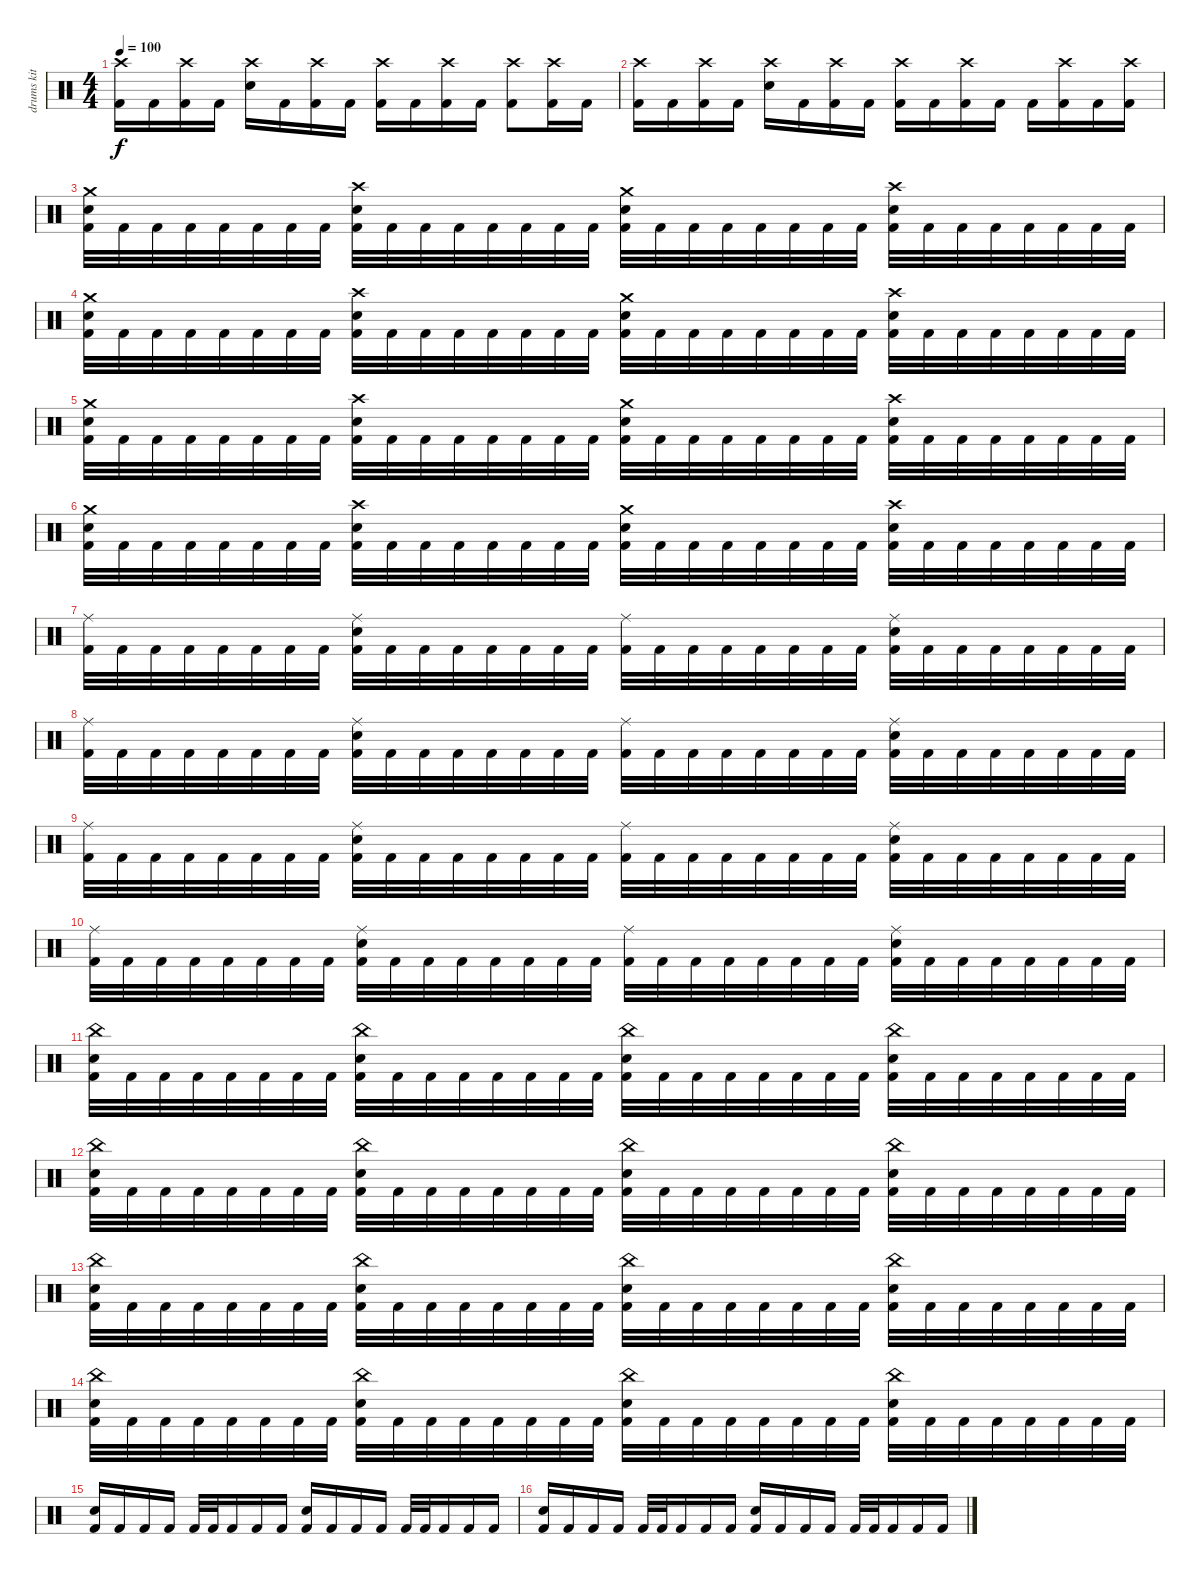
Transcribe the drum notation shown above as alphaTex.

\track ("drums kit" "drums kit") {instrument percussion}
\staff {score}
\articulation defaults
\ts (4 4)
\tempo 100
\clef neutral
\ks c
("Crash high (hit)" "Kick (hit) 2").16{dy f} "Kick (hit) 2".16 ("Crash high (hit)" "Kick (hit) 2").16 "Kick (hit) 2".16 ("Crash high (hit)" "Snare (hit) 2").16 "Kick (hit) 2".16 ("Crash high (hit)" "Kick (hit) 2").16 "Kick (hit) 2".16 ("Crash high (hit)" "Kick (hit) 2").16 "Kick (hit) 2".16 ("Crash high (hit)" "Kick (hit) 2").16 "Kick (hit) 2".16 ("Crash high (hit)" "Kick (hit) 2").8 ("Crash high (hit)" "Kick (hit) 2").16 "Kick (hit) 2".16 |
("Crash high (hit)" "Kick (hit) 2").16 "Kick (hit) 2".16 ("Crash high (hit)" "Kick (hit) 2").16 "Kick (hit) 2".16 ("Crash high (hit)" "Snare (hit) 2").16 "Kick (hit) 2".16 ("Crash high (hit)" "Kick (hit) 2").16 "Kick (hit) 2".16 ("Crash high (hit)" "Kick (hit) 2").16 "Kick (hit) 2".16 ("Crash high (hit)" "Kick (hit) 2").16 "Kick (hit) 2".16 "Kick (hit) 2".16 ("Crash high (hit)" "Kick (hit) 2").16 "Kick (hit) 2".16 ("Crash high (hit)" "Kick (hit) 2").16 |
("Crash medium (hit)" "Snare (hit) 2" "Kick (hit) 2").32 "Kick (hit) 2".32 "Kick (hit) 2".32 "Kick (hit) 2".32 "Kick (hit) 2".32 "Kick (hit) 2".32 "Kick (hit) 2".32 "Kick (hit) 2".32 ("Crash high (hit)" "Snare (hit) 2" "Kick (hit) 2").32 "Kick (hit) 2".32 "Kick (hit) 2".32 "Kick (hit) 2".32 "Kick (hit) 2".32 "Kick (hit) 2".32 "Kick (hit) 2".32 "Kick (hit) 2".32 ("Crash medium (hit)" "Snare (hit) 2" "Kick (hit) 2").32 "Kick (hit) 2".32 "Kick (hit) 2".32 "Kick (hit) 2".32 "Kick (hit) 2".32 "Kick (hit) 2".32 "Kick (hit) 2".32 "Kick (hit) 2".32 ("Crash high (hit)" "Snare (hit) 2" "Kick (hit) 2").32 "Kick (hit) 2".32 "Kick (hit) 2".32 "Kick (hit) 2".32 "Kick (hit) 2".32 "Kick (hit) 2".32 "Kick (hit) 2".32 "Kick (hit) 2".32 |
("Crash medium (hit)" "Snare (hit) 2" "Kick (hit) 2").32 "Kick (hit) 2".32 "Kick (hit) 2".32 "Kick (hit) 2".32 "Kick (hit) 2".32 "Kick (hit) 2".32 "Kick (hit) 2".32 "Kick (hit) 2".32 ("Crash high (hit)" "Snare (hit) 2" "Kick (hit) 2").32 "Kick (hit) 2".32 "Kick (hit) 2".32 "Kick (hit) 2".32 "Kick (hit) 2".32 "Kick (hit) 2".32 "Kick (hit) 2".32 "Kick (hit) 2".32 ("Crash medium (hit)" "Snare (hit) 2" "Kick (hit) 2").32 "Kick (hit) 2".32 "Kick (hit) 2".32 "Kick (hit) 2".32 "Kick (hit) 2".32 "Kick (hit) 2".32 "Kick (hit) 2".32 "Kick (hit) 2".32 ("Crash high (hit)" "Snare (hit) 2" "Kick (hit) 2").32 "Kick (hit) 2".32 "Kick (hit) 2".32 "Kick (hit) 2".32 "Kick (hit) 2".32 "Kick (hit) 2".32 "Kick (hit) 2".32 "Kick (hit) 2".32 |
("Crash medium (hit)" "Snare (hit) 2" "Kick (hit) 2").32 "Kick (hit) 2".32 "Kick (hit) 2".32 "Kick (hit) 2".32 "Kick (hit) 2".32 "Kick (hit) 2".32 "Kick (hit) 2".32 "Kick (hit) 2".32 ("Crash high (hit)" "Snare (hit) 2" "Kick (hit) 2").32 "Kick (hit) 2".32 "Kick (hit) 2".32 "Kick (hit) 2".32 "Kick (hit) 2".32 "Kick (hit) 2".32 "Kick (hit) 2".32 "Kick (hit) 2".32 ("Crash medium (hit)" "Snare (hit) 2" "Kick (hit) 2").32 "Kick (hit) 2".32 "Kick (hit) 2".32 "Kick (hit) 2".32 "Kick (hit) 2".32 "Kick (hit) 2".32 "Kick (hit) 2".32 "Kick (hit) 2".32 ("Crash high (hit)" "Snare (hit) 2" "Kick (hit) 2").32 "Kick (hit) 2".32 "Kick (hit) 2".32 "Kick (hit) 2".32 "Kick (hit) 2".32 "Kick (hit) 2".32 "Kick (hit) 2".32 "Kick (hit) 2".32 |
("Crash medium (hit)" "Snare (hit) 2" "Kick (hit) 2").32 "Kick (hit) 2".32 "Kick (hit) 2".32 "Kick (hit) 2".32 "Kick (hit) 2".32 "Kick (hit) 2".32 "Kick (hit) 2".32 "Kick (hit) 2".32 ("Crash high (hit)" "Snare (hit) 2" "Kick (hit) 2").32 "Kick (hit) 2".32 "Kick (hit) 2".32 "Kick (hit) 2".32 "Kick (hit) 2".32 "Kick (hit) 2".32 "Kick (hit) 2".32 "Kick (hit) 2".32 ("Crash medium (hit)" "Snare (hit) 2" "Kick (hit) 2").32 "Kick (hit) 2".32 "Kick (hit) 2".32 "Kick (hit) 2".32 "Kick (hit) 2".32 "Kick (hit) 2".32 "Kick (hit) 2".32 "Kick (hit) 2".32 ("Crash high (hit)" "Snare (hit) 2" "Kick (hit) 2").32 "Kick (hit) 2".32 "Kick (hit) 2".32 "Kick (hit) 2".32 "Kick (hit) 2".32 "Kick (hit) 2".32 "Kick (hit) 2".32 "Kick (hit) 2".32 |
("Ride (middle)" "Kick (hit) 2").32 "Kick (hit) 2".32 "Kick (hit) 2".32 "Kick (hit) 2".32 "Kick (hit) 2".32 "Kick (hit) 2".32 "Kick (hit) 2".32 "Kick (hit) 2".32 ("Ride (middle)" "Snare (hit) 2" "Kick (hit) 2").32 "Kick (hit) 2".32 "Kick (hit) 2".32 "Kick (hit) 2".32 "Kick (hit) 2".32 "Kick (hit) 2".32 "Kick (hit) 2".32 "Kick (hit) 2".32 ("Ride (middle)" "Kick (hit) 2").32 "Kick (hit) 2".32 "Kick (hit) 2".32 "Kick (hit) 2".32 "Kick (hit) 2".32 "Kick (hit) 2".32 "Kick (hit) 2".32 "Kick (hit) 2".32 ("Ride (middle)" "Snare (hit) 2" "Kick (hit) 2").32 "Kick (hit) 2".32 "Kick (hit) 2".32 "Kick (hit) 2".32 "Kick (hit) 2".32 "Kick (hit) 2".32 "Kick (hit) 2".32 "Kick (hit) 2".32 |
("Ride (middle)" "Kick (hit) 2").32 "Kick (hit) 2".32 "Kick (hit) 2".32 "Kick (hit) 2".32 "Kick (hit) 2".32 "Kick (hit) 2".32 "Kick (hit) 2".32 "Kick (hit) 2".32 ("Ride (middle)" "Snare (hit) 2" "Kick (hit) 2").32 "Kick (hit) 2".32 "Kick (hit) 2".32 "Kick (hit) 2".32 "Kick (hit) 2".32 "Kick (hit) 2".32 "Kick (hit) 2".32 "Kick (hit) 2".32 ("Ride (middle)" "Kick (hit) 2").32 "Kick (hit) 2".32 "Kick (hit) 2".32 "Kick (hit) 2".32 "Kick (hit) 2".32 "Kick (hit) 2".32 "Kick (hit) 2".32 "Kick (hit) 2".32 ("Ride (middle)" "Snare (hit) 2" "Kick (hit) 2").32 "Kick (hit) 2".32 "Kick (hit) 2".32 "Kick (hit) 2".32 "Kick (hit) 2".32 "Kick (hit) 2".32 "Kick (hit) 2".32 "Kick (hit) 2".32 |
("Ride (middle)" "Kick (hit) 2").32 "Kick (hit) 2".32 "Kick (hit) 2".32 "Kick (hit) 2".32 "Kick (hit) 2".32 "Kick (hit) 2".32 "Kick (hit) 2".32 "Kick (hit) 2".32 ("Ride (middle)" "Snare (hit) 2" "Kick (hit) 2").32 "Kick (hit) 2".32 "Kick (hit) 2".32 "Kick (hit) 2".32 "Kick (hit) 2".32 "Kick (hit) 2".32 "Kick (hit) 2".32 "Kick (hit) 2".32 ("Ride (middle)" "Kick (hit) 2").32 "Kick (hit) 2".32 "Kick (hit) 2".32 "Kick (hit) 2".32 "Kick (hit) 2".32 "Kick (hit) 2".32 "Kick (hit) 2".32 "Kick (hit) 2".32 ("Ride (middle)" "Snare (hit) 2" "Kick (hit) 2").32 "Kick (hit) 2".32 "Kick (hit) 2".32 "Kick (hit) 2".32 "Kick (hit) 2".32 "Kick (hit) 2".32 "Kick (hit) 2".32 "Kick (hit) 2".32 |
("Ride (middle)" "Kick (hit) 2").32 "Kick (hit) 2".32 "Kick (hit) 2".32 "Kick (hit) 2".32 "Kick (hit) 2".32 "Kick (hit) 2".32 "Kick (hit) 2".32 "Kick (hit) 2".32 ("Ride (middle)" "Snare (hit) 2" "Kick (hit) 2").32 "Kick (hit) 2".32 "Kick (hit) 2".32 "Kick (hit) 2".32 "Kick (hit) 2".32 "Kick (hit) 2".32 "Kick (hit) 2".32 "Kick (hit) 2".32 ("Ride (middle)" "Kick (hit) 2").32 "Kick (hit) 2".32 "Kick (hit) 2".32 "Kick (hit) 2".32 "Kick (hit) 2".32 "Kick (hit) 2".32 "Kick (hit) 2".32 "Kick (hit) 2".32 ("Ride (middle)" "Snare (hit) 2" "Kick (hit) 2").32 "Kick (hit) 2".32 "Kick (hit) 2".32 "Kick (hit) 2".32 "Kick (hit) 2".32 "Kick (hit) 2".32 "Kick (hit) 2".32 "Kick (hit) 2".32 |
("China (hit)" "Snare (hit) 2" "Kick (hit) 2").32 "Kick (hit) 2".32 "Kick (hit) 2".32 "Kick (hit) 2".32 "Kick (hit) 2".32 "Kick (hit) 2".32 "Kick (hit) 2".32 "Kick (hit) 2".32 ("China (hit)" "Snare (hit) 2" "Kick (hit) 2").32 "Kick (hit) 2".32 "Kick (hit) 2".32 "Kick (hit) 2".32 "Kick (hit) 2".32 "Kick (hit) 2".32 "Kick (hit) 2".32 "Kick (hit) 2".32 ("China (hit)" "Snare (hit) 2" "Kick (hit) 2").32 "Kick (hit) 2".32 "Kick (hit) 2".32 "Kick (hit) 2".32 "Kick (hit) 2".32 "Kick (hit) 2".32 "Kick (hit) 2".32 "Kick (hit) 2".32 ("China (hit)" "Snare (hit) 2" "Kick (hit) 2").32 "Kick (hit) 2".32 "Kick (hit) 2".32 "Kick (hit) 2".32 "Kick (hit) 2".32 "Kick (hit) 2".32 "Kick (hit) 2".32 "Kick (hit) 2".32 |
("China (hit)" "Snare (hit) 2" "Kick (hit) 2").32 "Kick (hit) 2".32 "Kick (hit) 2".32 "Kick (hit) 2".32 "Kick (hit) 2".32 "Kick (hit) 2".32 "Kick (hit) 2".32 "Kick (hit) 2".32 ("China (hit)" "Snare (hit) 2" "Kick (hit) 2").32 "Kick (hit) 2".32 "Kick (hit) 2".32 "Kick (hit) 2".32 "Kick (hit) 2".32 "Kick (hit) 2".32 "Kick (hit) 2".32 "Kick (hit) 2".32 ("China (hit)" "Snare (hit) 2" "Kick (hit) 2").32 "Kick (hit) 2".32 "Kick (hit) 2".32 "Kick (hit) 2".32 "Kick (hit) 2".32 "Kick (hit) 2".32 "Kick (hit) 2".32 "Kick (hit) 2".32 ("China (hit)" "Snare (hit) 2" "Kick (hit) 2").32 "Kick (hit) 2".32 "Kick (hit) 2".32 "Kick (hit) 2".32 "Kick (hit) 2".32 "Kick (hit) 2".32 "Kick (hit) 2".32 "Kick (hit) 2".32 |
("China (hit)" "Snare (hit) 2" "Kick (hit) 2").32 "Kick (hit) 2".32 "Kick (hit) 2".32 "Kick (hit) 2".32 "Kick (hit) 2".32 "Kick (hit) 2".32 "Kick (hit) 2".32 "Kick (hit) 2".32 ("China (hit)" "Snare (hit) 2" "Kick (hit) 2").32 "Kick (hit) 2".32 "Kick (hit) 2".32 "Kick (hit) 2".32 "Kick (hit) 2".32 "Kick (hit) 2".32 "Kick (hit) 2".32 "Kick (hit) 2".32 ("China (hit)" "Snare (hit) 2" "Kick (hit) 2").32 "Kick (hit) 2".32 "Kick (hit) 2".32 "Kick (hit) 2".32 "Kick (hit) 2".32 "Kick (hit) 2".32 "Kick (hit) 2".32 "Kick (hit) 2".32 ("China (hit)" "Snare (hit) 2" "Kick (hit) 2").32 "Kick (hit) 2".32 "Kick (hit) 2".32 "Kick (hit) 2".32 "Kick (hit) 2".32 "Kick (hit) 2".32 "Kick (hit) 2".32 "Kick (hit) 2".32 |
("China (hit)" "Snare (hit) 2" "Kick (hit) 2").32 "Kick (hit) 2".32 "Kick (hit) 2".32 "Kick (hit) 2".32 "Kick (hit) 2".32 "Kick (hit) 2".32 "Kick (hit) 2".32 "Kick (hit) 2".32 ("China (hit)" "Snare (hit) 2" "Kick (hit) 2").32 "Kick (hit) 2".32 "Kick (hit) 2".32 "Kick (hit) 2".32 "Kick (hit) 2".32 "Kick (hit) 2".32 "Kick (hit) 2".32 "Kick (hit) 2".32 ("China (hit)" "Snare (hit) 2" "Kick (hit) 2").32 "Kick (hit) 2".32 "Kick (hit) 2".32 "Kick (hit) 2".32 "Kick (hit) 2".32 "Kick (hit) 2".32 "Kick (hit) 2".32 "Kick (hit) 2".32 ("China (hit)" "Snare (hit) 2" "Kick (hit) 2").32 "Kick (hit) 2".32 "Kick (hit) 2".32 "Kick (hit) 2".32 "Kick (hit) 2".32 "Kick (hit) 2".32 "Kick (hit) 2".32 "Kick (hit) 2".32 |
("Snare (hit) 2" "Kick (hit) 2").16 "Kick (hit) 2".16 "Kick (hit) 2".16 "Kick (hit) 2".16 "Kick (hit) 2".32 "Kick (hit) 2".32 "Kick (hit) 2".16 "Kick (hit) 2".16 "Kick (hit) 2".16 ("Snare (hit) 2" "Kick (hit) 2").16 "Kick (hit) 2".16 "Kick (hit) 2".16 "Kick (hit) 2".16 "Kick (hit) 2".32 "Kick (hit) 2".32 "Kick (hit) 2".16 "Kick (hit) 2".16 "Kick (hit) 2".16 |
("Snare (hit) 2" "Kick (hit) 2").16 "Kick (hit) 2".16 "Kick (hit) 2".16 "Kick (hit) 2".16 "Kick (hit) 2".32 "Kick (hit) 2".32 "Kick (hit) 2".16 "Kick (hit) 2".16 "Kick (hit) 2".16 ("Snare (hit) 2" "Kick (hit) 2").16 "Kick (hit) 2".16 "Kick (hit) 2".16 "Kick (hit) 2".16 "Kick (hit) 2".32 "Kick (hit) 2".32 "Kick (hit) 2".16 "Kick (hit) 2".16 "Kick (hit) 2".16
